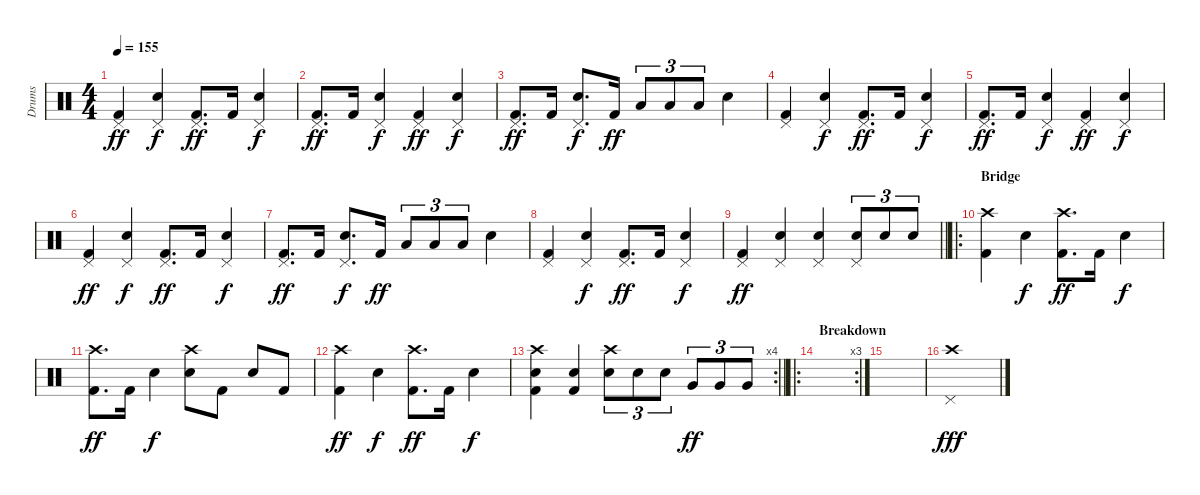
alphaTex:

\track ("Drums" "Drums") {instrument percussion}
\staff {score}
\articulation defaults
\ts (4 4)
\tempo 155
\clef neutral
\ks c
("Pedal Hi-Hat (hit)" "Kick (hit) 2").4{dy ff} ("Pedal Hi-Hat (hit)" "Electric Snare (hit)").4{dy f} ("Pedal Hi-Hat (hit)" "Kick (hit) 2").8{d dy ff} "Kick (hit) 2".16 ("Pedal Hi-Hat (hit)" "Electric Snare (hit)").4{dy f} |
("Pedal Hi-Hat (hit)" "Kick (hit) 2").8{d dy ff} "Kick (hit) 2".16 ("Pedal Hi-Hat (hit)" "Electric Snare (hit)").4{dy f} ("Pedal Hi-Hat (hit)" "Kick (hit) 2").4{dy ff} ("Pedal Hi-Hat (hit)" "Electric Snare (hit)").4{dy f} |
("Pedal Hi-Hat (hit)" "Kick (hit) 2").8{d dy ff} "Kick (hit) 2".16 ("Pedal Hi-Hat (hit)" "Electric Snare (hit)").8{d dy f} "Kick (hit) 2".16{dy ff} "Low Floor Tom (hit)".8{tu (3 2)} "Low Floor Tom (hit)".8{tu (3 2)} "Low Floor Tom (hit)".8{tu (3 2)} "Electric Snare (hit)".4 |
("Pedal Hi-Hat (hit)" "Kick (hit) 2").4 ("Pedal Hi-Hat (hit)" "Electric Snare (hit)").4{dy f} ("Pedal Hi-Hat (hit)" "Kick (hit) 2").8{d dy ff} "Kick (hit) 2".16 ("Pedal Hi-Hat (hit)" "Electric Snare (hit)").4{dy f} |
("Pedal Hi-Hat (hit)" "Kick (hit) 2").8{d dy ff} "Kick (hit) 2".16 ("Pedal Hi-Hat (hit)" "Electric Snare (hit)").4{dy f} ("Pedal Hi-Hat (hit)" "Kick (hit) 2").4{dy ff} ("Pedal Hi-Hat (hit)" "Electric Snare (hit)").4{dy f} |
("Pedal Hi-Hat (hit)" "Kick (hit) 2").4{dy ff} ("Pedal Hi-Hat (hit)" "Electric Snare (hit)").4{dy f} ("Pedal Hi-Hat (hit)" "Kick (hit) 2").8{d dy ff} "Kick (hit) 2".16 ("Pedal Hi-Hat (hit)" "Electric Snare (hit)").4{dy f} |
("Pedal Hi-Hat (hit)" "Kick (hit) 2").8{d dy ff} "Kick (hit) 2".16 ("Pedal Hi-Hat (hit)" "Electric Snare (hit)").8{d dy f} "Kick (hit) 2".16{dy ff} "Low Floor Tom (hit)".8{tu (3 2)} "Low Floor Tom (hit)".8{tu (3 2)} "Low Floor Tom (hit)".8{tu (3 2)} "Electric Snare (hit)".4 |
("Pedal Hi-Hat (hit)" "Kick (hit) 2").4 ("Pedal Hi-Hat (hit)" "Electric Snare (hit)").4{dy f} ("Pedal Hi-Hat (hit)" "Kick (hit) 2").8{d dy ff} "Kick (hit) 2".16 ("Pedal Hi-Hat (hit)" "Electric Snare (hit)").4{dy f} |
\barLineRight lightlight
("Pedal Hi-Hat (hit)" "Kick (hit) 2").4{dy ff} ("Pedal Hi-Hat (hit)" "Electric Snare (hit)").4 ("Pedal Hi-Hat (hit)" "Electric Snare (hit)").4 ("Pedal Hi-Hat (hit)" "Electric Snare (hit)").8{tu (3 2)} "Electric Snare (hit)".8{tu (3 2)} "Electric Snare (hit)".8{tu (3 2)} |
\ro
\section ("" "Bridge")
("Crash high (hit)" "Kick (hit) 2").4 "Electric Snare (hit)".4{dy f} ("Crash high (hit)" "Kick (hit) 2").8{d dy ff} "Kick (hit) 2".16 "Electric Snare (hit)".4{dy f} |
("Crash high (hit)" "Kick (hit) 2").8{d dy ff} "Kick (hit) 2".16 "Electric Snare (hit)".4{dy f} ("Crash high (hit)" "Electric Snare (hit)").8 "Kick (hit) 2".8 "Electric Snare (hit)".8 "Kick (hit) 2".8 |
("Crash high (hit)" "Kick (hit) 2").4{dy ff} "Electric Snare (hit)".4{dy f} ("Crash high (hit)" "Kick (hit) 2").8{d dy ff} "Kick (hit) 2".16 "Electric Snare (hit)".4{dy f} |
\rc 4
\barLineRight lightlight
("Crash high (hit)" "Electric Snare (hit)" "Kick (hit) 2").4 ("Electric Snare (hit)" "Kick (hit) 2").4 ("Crash high (hit)" "Electric Snare (hit)").8{tu (3 2)} "Electric Snare (hit)".8{tu (3 2)} "Electric Snare (hit)".8{tu (3 2)} "Very Low Tom (hit)".8{tu (3 2) dy ff} "Very Low Tom (hit)".8{tu (3 2)} "Very Low Tom (hit)".8{tu (3 2)} |
\ro
\rc 3
\section ("" "Breakdown")
|
|
("Crash high (hit)" "Pedal Hi-Hat (hit)").1{dy fff}
